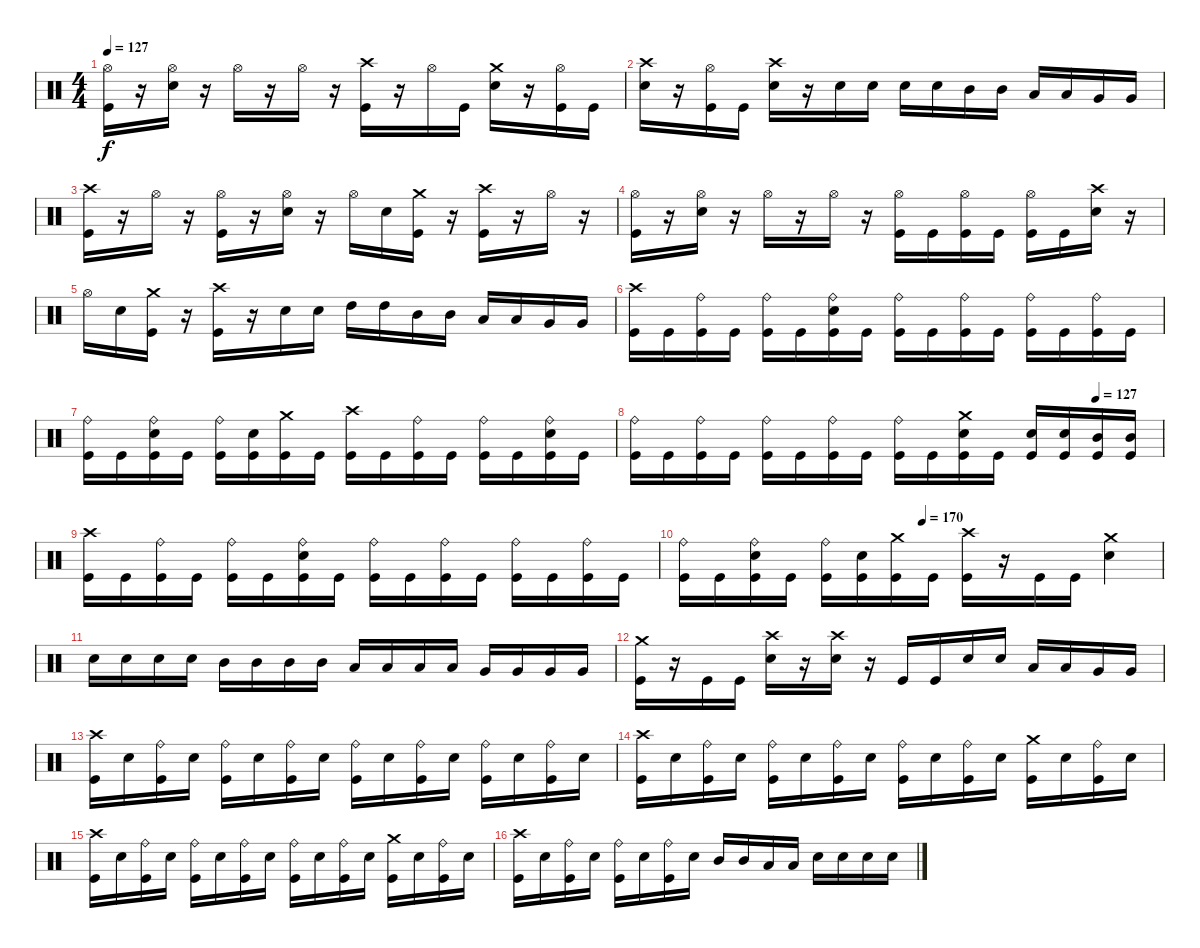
\track "" {instrument percussion}
\staff {score}
\articulation defaults
\ts (4 4)
\tempo 127
\clef neutral
\ks c
("Hi-Hat (open)" "Kick (hit)").16{dy f} r.16 ("Snare (hit) 2" "Hi-Hat (open)").16 r.16 "Hi-Hat (open)".16 r.16 "Hi-Hat (open)".16 r.16 ("Kick (hit)" "Crash high (hit)").16 r.16 "Hi-Hat (open)".16 "Kick (hit)".16 ("Snare (hit) 2" "Crash medium (hit)").16 r.16 ("Kick (hit)" "Hi-Hat (open)").16 "Kick (hit)".16 |
("Snare (hit) 2" "Crash high (hit)").16 r.16 ("Hi-Hat (open)" "Kick (hit)").16 "Kick (hit)".16 ("Crash high (hit)" "Snare (hit) 2").16 r.16 "Snare (hit) 2".16 "Snare (hit) 2".16 "Snare (hit) 2".16 "Snare (hit) 2".16 "Mid Tom (hit)".16 "Mid Tom (hit)".16 "Low Tom (hit)".16 "Low Tom (hit)".16 "Very Low Tom (hit)".16 "Very Low Tom (hit)".16 |
("Crash high (hit)" "Kick (hit)").16 r.16 "Hi-Hat (open)".16 r.16 ("Kick (hit)" "Hi-Hat (open)").16 r.16 ("Snare (hit) 2" "Hi-Hat (open)").16 r.16 "Hi-Hat (open)".16 "Snare (hit) 2".16 ("Kick (hit)" "Crash medium (hit)").16 r.16 ("Kick (hit)" "Crash high (hit)").16 r.16 "Hi-Hat (open)".16 r.16 |
("Kick (hit)" "Hi-Hat (open)").16 r.16 ("Hi-Hat (open)" "Snare (hit) 2").16 r.16 "Hi-Hat (open)".16 r.16 "Hi-Hat (open)".16 r.16 ("Hi-Hat (open)" "Kick (hit)").16 "Kick (hit)".16 ("Kick (hit)" "Hi-Hat (open)").16 "Kick (hit)".16 ("Kick (hit)" "Hi-Hat (open)").16 "Kick (hit)".16 ("Snare (hit) 2" "Crash high (hit)").16 r.16 |
"Hi-Hat (open)".16 "Snare (hit) 2".16 ("Crash medium (hit)" "Kick (hit)").16 r.16 ("Kick (hit)" "Crash high (hit)").16 r.16 "Snare (hit) 2".16 "Snare (hit) 2".16 "High Tom (hit)".16 "High Tom (hit)".16 "Mid Tom (hit)".16 "Mid Tom (hit)".16 "Low Tom (hit)".16 "Low Tom (hit)".16 "Very Low Tom (hit)".16 "Very Low Tom (hit)".16 |
("Crash high (hit)" "Kick (hit)").16 "Kick (hit)".16 ("Ride (bell)" "Kick (hit)").16 "Kick (hit)".16 ("Ride (bell)" "Kick (hit)").16 "Kick (hit)".16 ("Ride (bell)" "Kick (hit)" "Snare (hit) 2").16 "Kick (hit)".16 ("Ride (bell)" "Kick (hit)").16 "Kick (hit)".16 ("Ride (bell)" "Kick (hit)").16 "Kick (hit)".16 ("Ride (bell)" "Kick (hit)").16 "Kick (hit)".16 ("Ride (bell)" "Kick (hit)").16 "Kick (hit)".16 |
("Ride (bell)" "Kick (hit)").16 "Kick (hit)".16 ("Ride (bell)" "Kick (hit)" "Snare (hit) 2").16 "Kick (hit)".16 ("Kick (hit)" "Ride (bell)").16 ("Kick (hit)" "Snare (hit) 2").16 ("Crash medium (hit)" "Kick (hit)").16 "Kick (hit)".16 ("Crash high (hit)" "Kick (hit)").16 "Kick (hit)".16 ("Ride (bell)" "Kick (hit)").16 "Kick (hit)".16 ("Ride (bell)" "Kick (hit)").16 "Kick (hit)".16 ("Ride (bell)" "Kick (hit)" "Snare (hit) 2").16 "Kick (hit)".16 |
\tempo (127 0.875)
("Ride (bell)" "Kick (hit)").16 "Kick (hit)".16 ("Ride (bell)" "Kick (hit)").16 "Kick (hit)".16 ("Ride (bell)" "Kick (hit)").16 "Kick (hit)".16 ("Ride (bell)" "Kick (hit)").16 "Kick (hit)".16 ("Ride (bell)" "Kick (hit)").16 "Kick (hit)".16 ("Crash medium (hit)" "Kick (hit)" "Snare (hit) 2").16 "Kick (hit)".16 ("Snare (hit) 2" "Kick (hit)").16 ("Snare (hit) 2" "Kick (hit)").16 ("Mid Tom (hit)" "Kick (hit)").16 ("Kick (hit)" "Mid Tom (hit)").16 |
("Crash high (hit)" "Kick (hit)").16 "Kick (hit)".16 ("Ride (bell)" "Kick (hit)").16 "Kick (hit)".16 ("Ride (bell)" "Kick (hit)").16 "Kick (hit)".16 ("Ride (bell)" "Kick (hit)" "Snare (hit) 2").16 "Kick (hit)".16 ("Ride (bell)" "Kick (hit)").16 "Kick (hit)".16 ("Ride (bell)" "Kick (hit)").16 "Kick (hit)".16 ("Ride (bell)" "Kick (hit)").16 "Kick (hit)".16 ("Ride (bell)" "Kick (hit)").16 "Kick (hit)".16 |
\tempo (170 0.5)
("Ride (bell)" "Kick (hit)").16 "Kick (hit)".16 ("Ride (bell)" "Kick (hit)" "Snare (hit) 2").16 "Kick (hit)".16 ("Kick (hit)" "Ride (bell)").16 ("Kick (hit)" "Snare (hit) 2").16 ("Crash medium (hit)" "Kick (hit)").16 "Kick (hit)".16 ("Crash high (hit)" "Kick (hit)").16 r.16 "Kick (hit)".16 "Kick (hit)".16 ("Crash medium (hit)" "Snare (hit) 2").4 |
"Snare (hit) 2".16 "Snare (hit) 2".16 "Snare (hit) 2".16 "Snare (hit) 2".16 "Mid Tom (hit)".16 "Mid Tom (hit)".16 "Mid Tom (hit)".16 "Mid Tom (hit)".16 "Low Tom (hit)".16 "Low Tom (hit)".16 "Low Tom (hit)".16 "Low Tom (hit)".16 "Very Low Tom (hit)".16 "Very Low Tom (hit)".16 "Very Low Tom (hit)".16 "Very Low Tom (hit)".16 |
("Crash medium (hit)" "Kick (hit)").16 r.16 "Kick (hit)".16 "Kick (hit)".16 ("Crash high (hit)" "Snare (hit) 2").16 r.16 ("Crash high (hit)" "Snare (hit) 2").16 r.16 "Kick (hit)".16 "Kick (hit)".16 "Snare (hit) 2".16 "Snare (hit) 2".16 "Low Tom (hit)".16 "Low Tom (hit)".16 "Very Low Tom (hit)".16 "Very Low Tom (hit)".16 |
("Crash high (hit)" "Kick (hit)").16 "Snare (hit) 2".16 ("Kick (hit)" "Ride (bell)").16 "Snare (hit) 2".16 ("Ride (bell)" "Kick (hit)").16 "Snare (hit) 2".16 ("Ride (bell)" "Kick (hit)").16 "Snare (hit) 2".16 ("Ride (bell)" "Kick (hit)").16 "Snare (hit) 2".16 ("Ride (bell)" "Kick (hit)").16 "Snare (hit) 2".16 ("Kick (hit)" "Ride (bell)").16 "Snare (hit) 2".16 ("Ride (bell)" "Kick (hit)").16 "Snare (hit) 2".16 |
("Kick (hit)" "Crash high (hit)").16 "Snare (hit) 2".16 ("Kick (hit)" "Ride (bell)").16 "Snare (hit) 2".16 ("Kick (hit)" "Ride (bell)").16 "Snare (hit) 2".16 ("Ride (bell)" "Kick (hit)").16 "Snare (hit) 2".16 ("Ride (bell)" "Kick (hit)").16 "Snare (hit) 2".16 ("Ride (bell)" "Kick (hit)").16 "Snare (hit) 2".16 ("Crash medium (hit)" "Kick (hit)").16 "Snare (hit) 2".16 ("Ride (bell)" "Kick (hit)").16 "Snare (hit) 2".16 |
("Crash high (hit)" "Kick (hit)").16 "Snare (hit) 2".16 ("Kick (hit)" "Ride (bell)").16 "Snare (hit) 2".16 ("Ride (bell)" "Kick (hit)").16 "Snare (hit) 2".16 ("Ride (bell)" "Kick (hit)").16 "Snare (hit) 2".16 ("Ride (bell)" "Kick (hit)").16 "Snare (hit) 2".16 ("Ride (bell)" "Kick (hit)").16 "Snare (hit) 2".16 ("Kick (hit)" "Crash medium (hit)").16 "Snare (hit) 2".16 ("Ride (bell)" "Kick (hit)").16 "Snare (hit) 2".16 |
("Kick (hit)" "Crash high (hit)").16 "Snare (hit) 2".16 ("Kick (hit)" "Ride (bell)").16 "Snare (hit) 2".16 ("Kick (hit)" "Ride (bell)").16 "Snare (hit) 2".16 ("Ride (bell)" "Kick (hit)").16 "Snare (hit) 2".16 "Mid Tom (hit)".16 "Mid Tom (hit)".16 "Low Tom (hit)".16 "Low Tom (hit)".16 "Snare (hit) 2".16 "Snare (hit) 2".16 "Snare (hit) 2".16 "Snare (hit) 2".16
